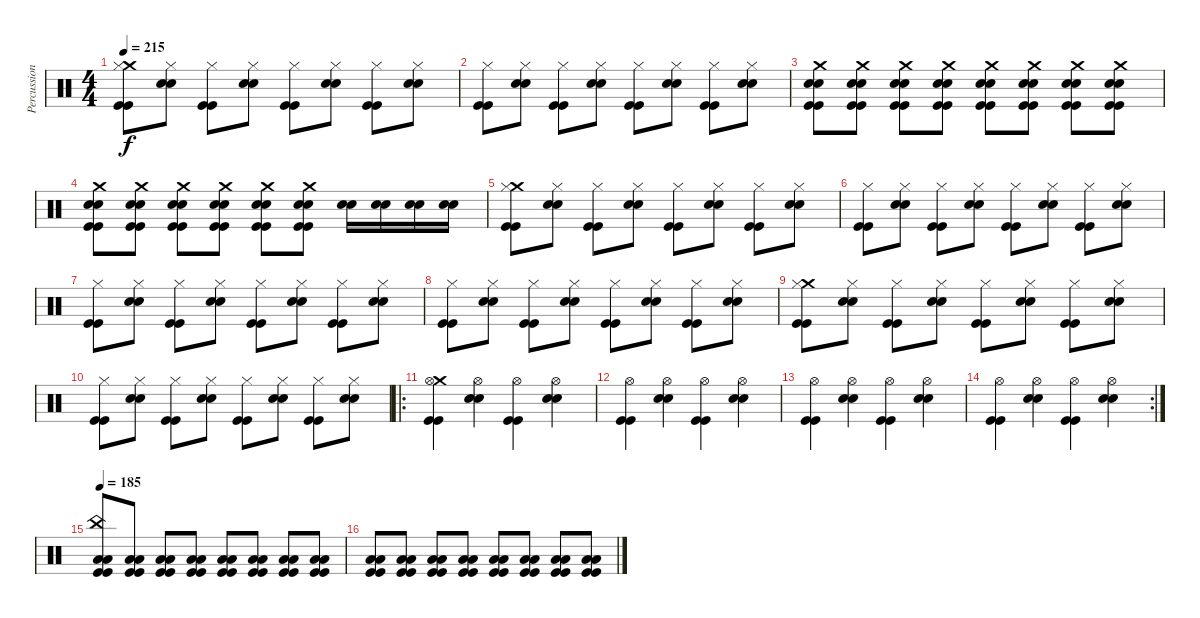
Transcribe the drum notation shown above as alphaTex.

\track ("Percussion" "Percussion") {instrument percussion}
\staff {score}
\articulation defaults
\ts (4 4)
\tempo 215
\clef neutral
\ks c
("Crash medium (hit)" "Kick (hit)" "Kick (hit)" "Hi-Hat (closed)").8{dy f} ("Snare (hit) 2" "Snare (hit) 2" "Hi-Hat (closed)").8 ("Kick (hit)" "Kick (hit)" "Hi-Hat (closed)").8 ("Snare (hit) 2" "Snare (hit) 2" "Hi-Hat (closed)").8 ("Kick (hit)" "Kick (hit)" "Hi-Hat (closed)").8 ("Snare (hit) 2" "Snare (hit) 2" "Hi-Hat (closed)").8 ("Kick (hit)" "Kick (hit)" "Hi-Hat (closed)").8 ("Snare (hit) 2" "Snare (hit) 2" "Hi-Hat (closed)").8 |
("Kick (hit)" "Kick (hit)" "Hi-Hat (closed)").8 ("Snare (hit) 2" "Snare (hit) 2" "Hi-Hat (closed)").8 ("Kick (hit)" "Kick (hit)" "Hi-Hat (closed)").8 ("Snare (hit) 2" "Snare (hit) 2" "Hi-Hat (closed)").8 ("Kick (hit)" "Kick (hit)" "Hi-Hat (closed)").8 ("Snare (hit) 2" "Snare (hit) 2" "Hi-Hat (closed)").8 ("Kick (hit)" "Kick (hit)" "Hi-Hat (closed)").8 ("Snare (hit) 2" "Snare (hit) 2" "Hi-Hat (closed)").8 |
("Snare (hit) 2" "Snare (hit) 2" "Kick (hit)" "Kick (hit)" "Crash medium (hit)").8 ("Snare (hit) 2" "Snare (hit) 2" "Kick (hit)" "Kick (hit)" "Crash medium (hit)").8 ("Snare (hit) 2" "Snare (hit) 2" "Kick (hit)" "Kick (hit)" "Crash medium (hit)").8 ("Snare (hit) 2" "Snare (hit) 2" "Kick (hit)" "Kick (hit)" "Crash medium (hit)").8 ("Snare (hit) 2" "Snare (hit) 2" "Kick (hit)" "Kick (hit)" "Crash medium (hit)").8 ("Snare (hit) 2" "Snare (hit) 2" "Kick (hit)" "Kick (hit)" "Crash medium (hit)").8 ("Snare (hit) 2" "Snare (hit) 2" "Kick (hit)" "Kick (hit)" "Crash medium (hit)").8 ("Snare (hit) 2" "Snare (hit) 2" "Kick (hit)" "Kick (hit)" "Crash medium (hit)").8 |
("Snare (hit) 2" "Snare (hit) 2" "Kick (hit)" "Kick (hit)" "Crash medium (hit)").8 ("Snare (hit) 2" "Snare (hit) 2" "Kick (hit)" "Kick (hit)" "Crash medium (hit)").8 ("Snare (hit) 2" "Snare (hit) 2" "Kick (hit)" "Kick (hit)" "Crash medium (hit)").8 ("Snare (hit) 2" "Snare (hit) 2" "Kick (hit)" "Kick (hit)" "Crash medium (hit)").8 ("Snare (hit) 2" "Snare (hit) 2" "Kick (hit)" "Kick (hit)" "Crash medium (hit)").8 ("Snare (hit) 2" "Snare (hit) 2" "Kick (hit)" "Kick (hit)" "Crash medium (hit)").8 ("Snare (hit) 2" "Snare (hit) 2").16 ("Snare (hit) 2" "Snare (hit) 2").16 ("Snare (hit) 2" "Snare (hit) 2").16 ("Snare (hit) 2" "Snare (hit) 2").16 |
("Crash medium (hit)" "Kick (hit)" "Kick (hit)" "Hi-Hat (closed)").8 ("Snare (hit) 2" "Snare (hit) 2" "Hi-Hat (closed)").8 ("Kick (hit)" "Kick (hit)" "Hi-Hat (closed)").8 ("Snare (hit) 2" "Snare (hit) 2" "Hi-Hat (closed)").8 ("Kick (hit)" "Kick (hit)" "Hi-Hat (closed)").8 ("Snare (hit) 2" "Snare (hit) 2" "Hi-Hat (closed)").8 ("Kick (hit)" "Kick (hit)" "Hi-Hat (closed)").8 ("Snare (hit) 2" "Snare (hit) 2" "Hi-Hat (closed)").8 |
("Kick (hit)" "Kick (hit)" "Hi-Hat (closed)").8 ("Snare (hit) 2" "Snare (hit) 2" "Hi-Hat (closed)").8 ("Kick (hit)" "Kick (hit)" "Hi-Hat (closed)").8 ("Snare (hit) 2" "Snare (hit) 2" "Hi-Hat (closed)").8 ("Kick (hit)" "Kick (hit)" "Hi-Hat (closed)").8 ("Snare (hit) 2" "Snare (hit) 2" "Hi-Hat (closed)").8 ("Kick (hit)" "Kick (hit)" "Hi-Hat (closed)").8 ("Snare (hit) 2" "Snare (hit) 2" "Hi-Hat (closed)").8 |
("Kick (hit)" "Kick (hit)" "Hi-Hat (closed)").8 ("Snare (hit) 2" "Snare (hit) 2" "Hi-Hat (closed)").8 ("Kick (hit)" "Kick (hit)" "Hi-Hat (closed)").8 ("Snare (hit) 2" "Snare (hit) 2" "Hi-Hat (closed)").8 ("Kick (hit)" "Kick (hit)" "Hi-Hat (closed)").8 ("Snare (hit) 2" "Snare (hit) 2" "Hi-Hat (closed)").8 ("Kick (hit)" "Kick (hit)" "Hi-Hat (closed)").8 ("Snare (hit) 2" "Snare (hit) 2" "Hi-Hat (closed)").8 |
("Kick (hit)" "Kick (hit)" "Hi-Hat (closed)").8 ("Snare (hit) 2" "Snare (hit) 2" "Hi-Hat (closed)").8 ("Kick (hit)" "Kick (hit)" "Hi-Hat (closed)").8 ("Snare (hit) 2" "Snare (hit) 2" "Hi-Hat (closed)").8 ("Kick (hit)" "Kick (hit)" "Hi-Hat (closed)").8 ("Snare (hit) 2" "Snare (hit) 2" "Hi-Hat (closed)").8 ("Kick (hit)" "Kick (hit)" "Hi-Hat (closed)").8 ("Snare (hit) 2" "Snare (hit) 2" "Hi-Hat (closed)").8 |
("Crash medium (hit)" "Kick (hit)" "Kick (hit)" "Hi-Hat (closed)").8 ("Snare (hit) 2" "Snare (hit) 2" "Hi-Hat (closed)").8 ("Kick (hit)" "Kick (hit)" "Hi-Hat (closed)").8 ("Snare (hit) 2" "Snare (hit) 2" "Hi-Hat (closed)").8 ("Kick (hit)" "Kick (hit)" "Hi-Hat (closed)").8 ("Snare (hit) 2" "Snare (hit) 2" "Hi-Hat (closed)").8 ("Kick (hit)" "Kick (hit)" "Hi-Hat (closed)").8 ("Snare (hit) 2" "Snare (hit) 2" "Hi-Hat (closed)").8 |
("Kick (hit)" "Kick (hit)" "Hi-Hat (closed)").8 ("Snare (hit) 2" "Snare (hit) 2" "Hi-Hat (closed)").8 ("Kick (hit)" "Kick (hit)" "Hi-Hat (closed)").8 ("Snare (hit) 2" "Snare (hit) 2" "Hi-Hat (closed)").8 ("Kick (hit)" "Kick (hit)" "Hi-Hat (closed)").8 ("Snare (hit) 2" "Snare (hit) 2" "Hi-Hat (closed)").8 ("Kick (hit)" "Kick (hit)" "Hi-Hat (closed)").8 ("Snare (hit) 2" "Snare (hit) 2" "Hi-Hat (closed)").8 |
\ro
("Crash medium (hit)" "Hi-Hat (open)" "Kick (hit)" "Kick (hit)").4 ("Hi-Hat (open)" "Snare (hit) 2" "Snare (hit) 2").4 ("Hi-Hat (open)" "Kick (hit)" "Kick (hit)").4 ("Hi-Hat (open)" "Snare (hit) 2" "Snare (hit) 2").4 |
("Hi-Hat (open)" "Kick (hit)" "Kick (hit)").4 ("Hi-Hat (open)" "Snare (hit) 2" "Snare (hit) 2").4 ("Hi-Hat (open)" "Kick (hit)" "Kick (hit)").4 ("Hi-Hat (open)" "Snare (hit) 2" "Snare (hit) 2").4 |
("Hi-Hat (open)" "Kick (hit)" "Kick (hit)").4 ("Hi-Hat (open)" "Snare (hit) 2" "Snare (hit) 2").4 ("Hi-Hat (open)" "Kick (hit)" "Kick (hit)").4 ("Hi-Hat (open)" "Snare (hit) 2" "Snare (hit) 2").4 |
\rc 2
("Hi-Hat (open)" "Kick (hit)" "Kick (hit)").4 ("Hi-Hat (open)" "Snare (hit) 2" "Snare (hit) 2").4 ("Hi-Hat (open)" "Kick (hit)" "Kick (hit)").4 ("Hi-Hat (open)" "Snare (hit) 2" "Snare (hit) 2").4 |
\tempo 185
("China (hit)" "Kick (hit)" "Kick (hit)" "Low Floor Tom (hit)" "Low Floor Tom (hit)").8 ("Kick (hit)" "Kick (hit)" "Low Floor Tom (hit)" "Low Floor Tom (hit)").8 ("Kick (hit)" "Kick (hit)" "Low Floor Tom (hit)" "Low Floor Tom (hit)").8 ("Kick (hit)" "Kick (hit)" "Low Floor Tom (hit)" "Low Floor Tom (hit)").8 ("Kick (hit)" "Kick (hit)" "Low Floor Tom (hit)" "Low Floor Tom (hit)").8 ("Kick (hit)" "Kick (hit)" "Low Floor Tom (hit)" "Low Floor Tom (hit)").8 ("Kick (hit)" "Kick (hit)" "Low Floor Tom (hit)" "Low Floor Tom (hit)").8 ("Kick (hit)" "Kick (hit)" "Low Floor Tom (hit)" "Low Floor Tom (hit)").8 |
("Kick (hit)" "Kick (hit)" "Low Floor Tom (hit)" "Low Floor Tom (hit)").8 ("Kick (hit)" "Kick (hit)" "Low Floor Tom (hit)" "Low Floor Tom (hit)").8 ("Kick (hit)" "Kick (hit)" "Low Floor Tom (hit)" "Low Floor Tom (hit)").8 ("Kick (hit)" "Kick (hit)" "Low Floor Tom (hit)" "Low Floor Tom (hit)").8 ("Kick (hit)" "Kick (hit)" "Low Floor Tom (hit)" "Low Floor Tom (hit)").8 ("Kick (hit)" "Kick (hit)" "Low Floor Tom (hit)" "Low Floor Tom (hit)").8 ("Kick (hit)" "Kick (hit)" "Low Floor Tom (hit)" "Low Floor Tom (hit)").8 ("Kick (hit)" "Kick (hit)" "Low Floor Tom (hit)" "Low Floor Tom (hit)").8
